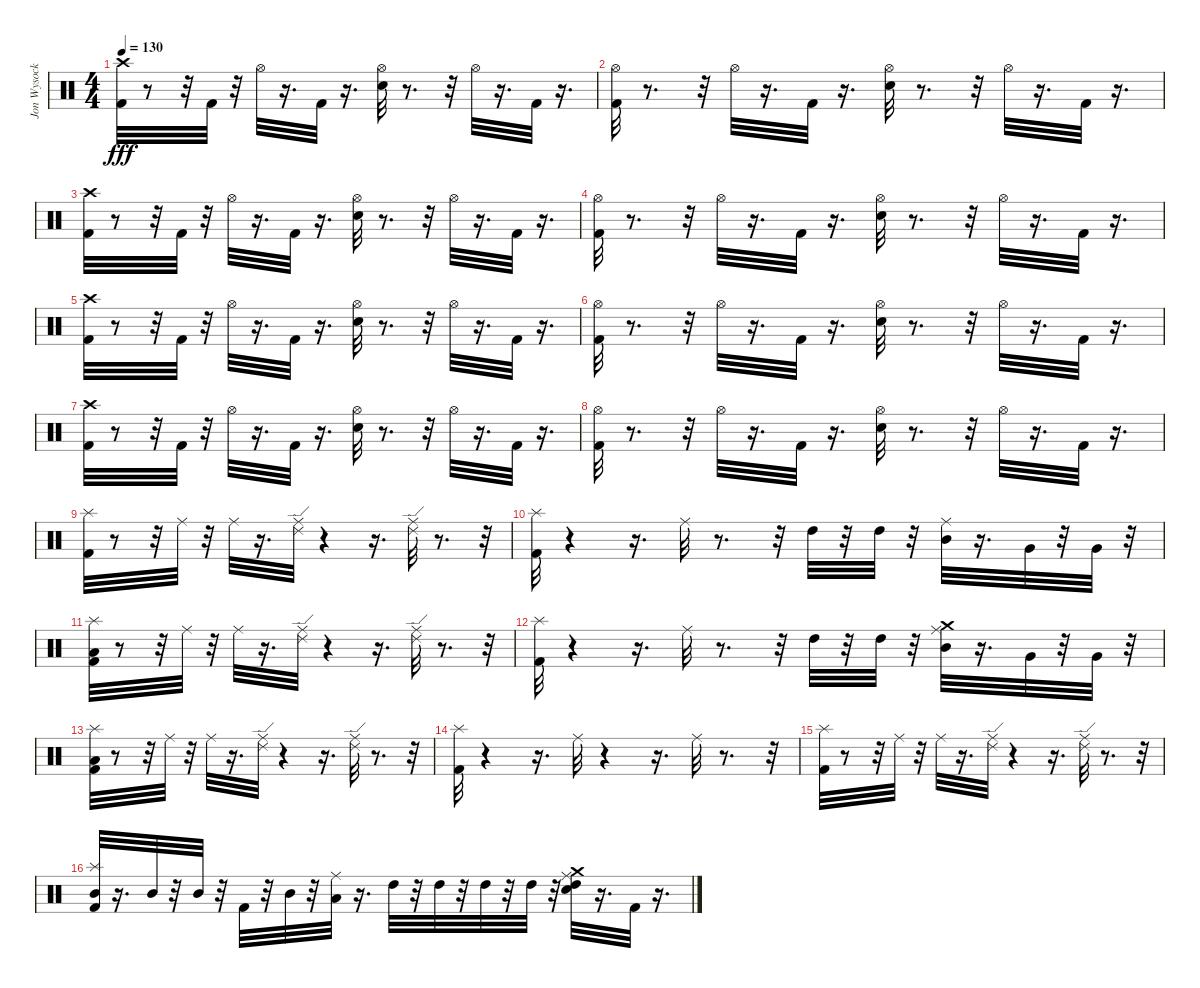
\track ("Jon Wysocki - Drums" "Jon Wysock") {instrument percussion}
\staff {score}
\articulation defaults
\ts (4 4)
\tempo 130
\clef neutral
\ks c
("Crash high (hit)" "Kick (hit) 2").32{dy fff} r.8 r.32 "Kick (hit) 2".32 r.32 "Hi-Hat (open)".32 r.16{d} "Kick (hit) 2".32 r.16{d} ("Hi-Hat (open)" "Electric Snare (hit)").32 r.8{d} r.32 "Hi-Hat (open)".32 r.16{d} "Kick (hit) 2".32 r.16{d} |
("Hi-Hat (open)" "Kick (hit) 2").32 r.8{d} r.32 "Hi-Hat (open)".32 r.16{d} "Kick (hit) 2".32 r.16{d} ("Electric Snare (hit)" "Hi-Hat (open)").32 r.8{d} r.32 "Hi-Hat (open)".32 r.16{d} "Kick (hit) 2".32 r.16{d} |
("Crash high (hit)" "Kick (hit) 2").32 r.8 r.32 "Kick (hit) 2".32 r.32 "Hi-Hat (open)".32 r.16{d} "Kick (hit) 2".32 r.16{d} ("Hi-Hat (open)" "Electric Snare (hit)").32 r.8{d} r.32 "Hi-Hat (open)".32 r.16{d} "Kick (hit) 2".32 r.16{d} |
("Hi-Hat (open)" "Kick (hit) 2").32 r.8{d} r.32 "Hi-Hat (open)".32 r.16{d} "Kick (hit) 2".32 r.16{d} ("Electric Snare (hit)" "Hi-Hat (open)").32 r.8{d} r.32 "Hi-Hat (open)".32 r.16{d} "Kick (hit) 2".32 r.16{d} |
("Crash high (hit)" "Kick (hit) 2").32 r.8 r.32 "Kick (hit) 2".32 r.32 "Hi-Hat (open)".32 r.16{d} "Kick (hit) 2".32 r.16{d} ("Hi-Hat (open)" "Electric Snare (hit)").32 r.8{d} r.32 "Hi-Hat (open)".32 r.16{d} "Kick (hit) 2".32 r.16{d} |
("Hi-Hat (open)" "Kick (hit) 2").32 r.8{d} r.32 "Hi-Hat (open)".32 r.16{d} "Kick (hit) 2".32 r.16{d} ("Electric Snare (hit)" "Hi-Hat (open)").32 r.8{d} r.32 "Hi-Hat (open)".32 r.16{d} "Kick (hit) 2".32 r.16{d} |
("Crash high (hit)" "Kick (hit) 2").32 r.8 r.32 "Kick (hit) 2".32 r.32 "Hi-Hat (open)".32 r.16{d} "Kick (hit) 2".32 r.16{d} ("Hi-Hat (open)" "Electric Snare (hit)").32 r.8{d} r.32 "Hi-Hat (open)".32 r.16{d} "Kick (hit) 2".32 r.16{d} |
("Hi-Hat (open)" "Kick (hit) 2").32 r.8{d} r.32 "Hi-Hat (open)".32 r.16{d} "Kick (hit) 2".32 r.16{d} ("Electric Snare (hit)" "Hi-Hat (open)").32 r.8{d} r.32 "Hi-Hat (open)".32 r.16{d} "Kick (hit) 2".32 r.16{d} |
("Kick (hit) 2" "Splash (hit)").32 r.8 r.32 "Ride (middle)".32 r.32 "Ride (middle)".32 r.16{d} ("Ride (edge) 2" "Ride (middle)").32 r.4 r.16{d} ("Ride (edge) 2" "Ride (middle)").32 r.8{d} r.32 |
("Splash (hit)" "Kick (hit) 2").32 r.4 r.16{d} "Ride (middle)".32 r.8{d} r.32 "High Tom (hit)".32 r.32 "High Tom (hit)".32 r.32 ("Mid Tom (hit)" "Ride (middle)").32 r.16{d} "Very Low Tom (hit)".32 r.32 "Very Low Tom (hit)".32 r.32 |
("Low Floor Tom (hit)" "Splash (hit)" "Kick (hit) 2").32 r.8 r.32 "Ride (middle)".32 r.32 "Ride (middle)".32 r.16{d} ("Ride (edge) 2" "Ride (middle)").32 r.4 r.16{d} ("Ride (edge) 2" "Ride (middle)").32 r.8{d} r.32 |
("Splash (hit)" "Kick (hit) 2").32 r.4 r.16{d} "Ride (middle)".32 r.8{d} r.32 "High Tom (hit)".32 r.32 "High Tom (hit)".32 r.32 ("Mid Tom (hit)" "Crash medium (hit)" "Ride (middle)").32 r.16{d} "Very Low Tom (hit)".32 r.32 "Very Low Tom (hit)".32 r.32 |
("Splash (hit)" "Kick (hit) 2" "Low Floor Tom (hit)").32 r.8 r.32 "Ride (middle)".32 r.32 "Ride (middle)".32 r.16{d} ("Ride (edge) 2" "Ride (middle)").32 r.4 r.16{d} ("Ride (edge) 2" "Ride (middle)").32 r.8{d} r.32 |
("Splash (hit)" "Kick (hit) 2").32 r.4 r.16{d} "Ride (middle)".32 r.4 r.16{d} "Ride (middle)".32 r.8{d} r.32 |
("Splash (hit)" "Kick (hit) 2").32 r.8 r.32 "Ride (middle)".32 r.32 "Ride (middle)".32 r.16{d} ("Ride (edge) 2" "Ride (middle)").32 r.4 r.16{d} ("Ride (edge) 2" "Ride (middle)").32 r.8{d} r.32 |
("Mid Tom (hit)" "Splash (hit)" "Kick (hit) 2").32 r.16{d} "Mid Tom (hit)".32 r.32 "Mid Tom (hit)".32 r.32 "Kick (hit) 2".32 r.32 "Mid Tom (hit)".32 r.32 ("Low Floor Tom (hit)" "Ride (middle)").32 r.16{d} "High Tom (hit)".32 r.32 "High Tom (hit)".32 r.32 "High Tom (hit)".32 r.32 "High Tom (hit)".32 r.32 ("High Tom (hit)" "Crash medium (hit)" "Ride (middle)" "Electric Snare (hit)").32 r.16{d} "Kick (hit) 2".32 r.16{d}
